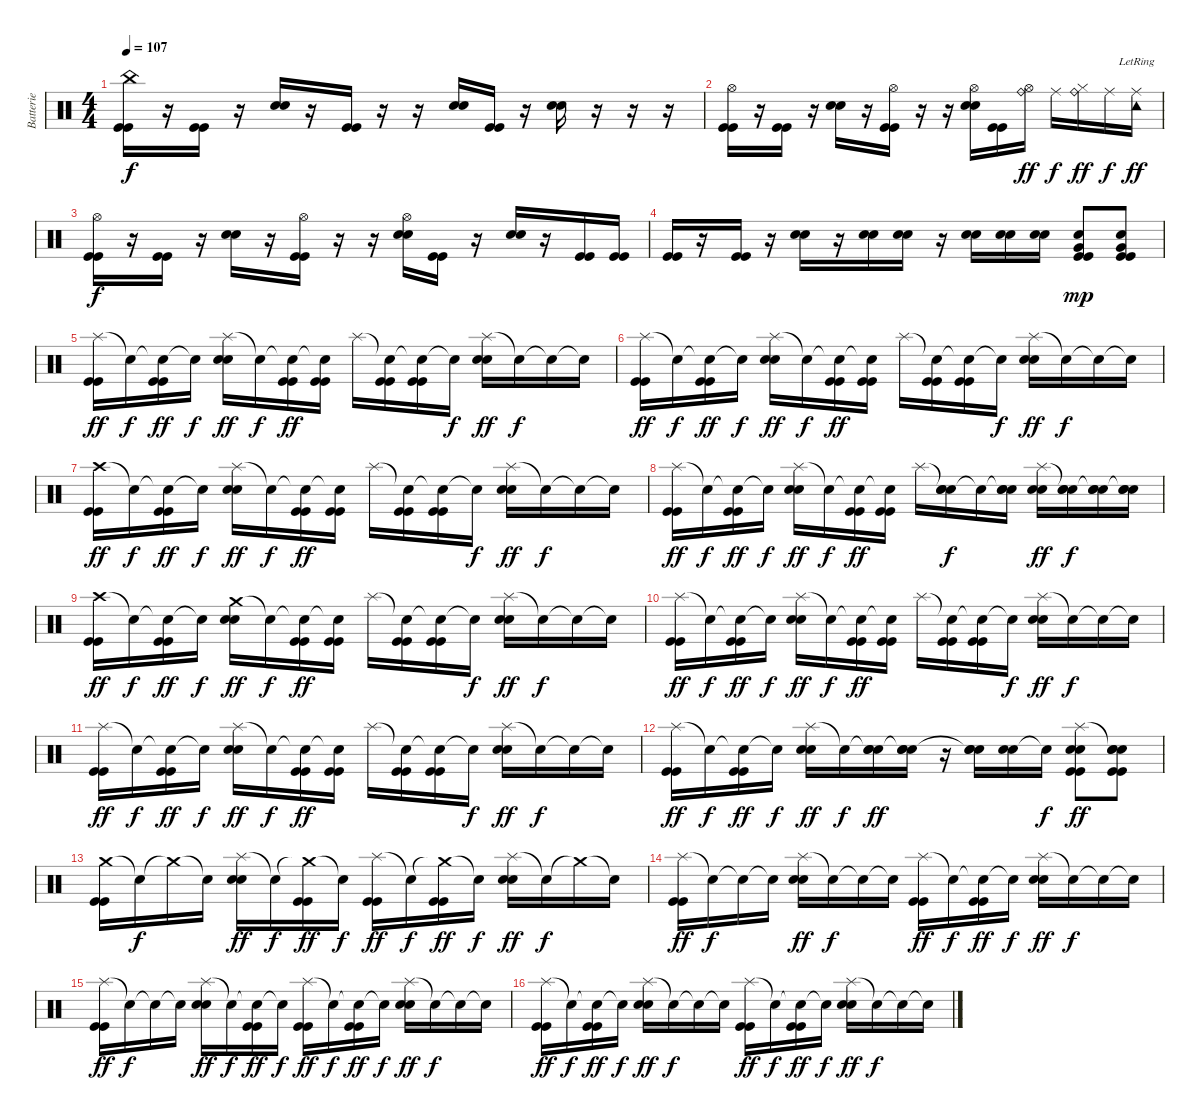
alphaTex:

\track ("Batterie" "Batterie") {instrument percussion}
\staff {score}
\articulation defaults
\ts (4 4)
\tempo 107
\clef neutral
\ks c
("China (hit)" "Kick (hit)" "Kick (hit)").16{dy f} r.16 ("Kick (hit)" "Kick (hit)").16 r.16 ("Snare (hit) 2" "Snare (hit) 2").16 r.16 ("Kick (hit)" "Kick (hit)").16 r.16 r.16 ("Snare (hit) 2" "Snare (hit) 2").16 ("Kick (hit)" "Kick (hit)").16 r.16 ("Snare (hit) 2" "Snare (hit) 2").16 r.16 r.16 r.16 |
("Hi-Hat (open)" "Kick (hit)" "Kick (hit)").16 r.16 ("Kick (hit)" "Kick (hit)").16 r.16 ("Snare (hit) 2" "Snare (hit) 2").16 r.16 ("Hi-Hat (open)" "Kick (hit)" "Kick (hit)").16 r.16 r.16 ("Hi-Hat (open)" "Snare (hit) 2" "Snare (hit) 2").16 ("Kick (hit)" "Kick (hit)").16 ("Hi-Hat (open)" "Ride (bell)").16{dy ff} "Ride (middle)".16{dy f} ("Ride (bell)" "Hi-Hat (closed)").16{dy ff} "Ride (middle)".16{dy f} ("Tambourine (hit)"{lr} "Ride (middle)").16{dy ff} |
("Hi-Hat (open)" "Kick (hit)" "Kick (hit)").16{dy f} r.16 ("Kick (hit)" "Kick (hit)").16 r.16 ("Snare (hit) 2" "Snare (hit) 2").16 r.16 ("Hi-Hat (open)" "Kick (hit)" "Kick (hit)").16 r.16 r.16 ("Hi-Hat (open)" "Snare (hit) 2" "Snare (hit) 2").16 ("Kick (hit)" "Kick (hit)").16 r.16 ("Snare (hit) 2" "Snare (hit) 2").16 r.16 ("Kick (hit)" "Kick (hit)").16 ("Kick (hit)" "Kick (hit)").16 |
("Kick (hit)" "Kick (hit)").16 r.16 ("Kick (hit)" "Kick (hit)").16 r.16 ("Snare (hit) 2" "Snare (hit) 2").16 r.16 ("Snare (hit) 2" "Snare (hit) 2").16 ("Snare (hit) 2" "Snare (hit) 2").16 r.16 ("Snare (hit) 2" "Snare (hit) 2").16 ("Snare (hit) 2" "Snare (hit) 2").16 ("Snare (hit) 2" "Snare (hit) 2").16 ("Very Low Tom (hit)" "Electric Snare (hit)" "Kick (hit)" "Kick (hit)").8{dy mp} ("Very Low Tom (hit)" "Electric Snare (hit)" "Kick (hit)" "Kick (hit)").8 |
("Splash (hit)" "Kick (hit)" "Kick (hit)").16{dy ff} "Snare (hit)"{t}.16{dy f} ("Snare (hit)"{t} "Kick (hit)" "Kick (hit)").16{dy ff} "Snare (hit)"{t}.16{dy f} ("Splash (hit)" "Snare (hit) 2" "Snare (hit) 2").16{dy ff} "Snare (hit)"{t}.16{dy f} ("Snare (hit)"{t} "Kick (hit)" "Kick (hit)").16{dy ff} ("Snare (hit)"{t} "Kick (hit)" "Kick (hit)").16 "Splash (hit)".16 ("Snare (hit)"{t} "Kick (hit)" "Kick (hit)").16 ("Snare (hit)"{t} "Kick (hit)" "Kick (hit)").16 "Snare (hit)"{t}.16{dy f} ("Splash (hit)" "Snare (hit) 2" "Snare (hit) 2").16{dy ff} "Snare (hit)"{t}.16{dy f} "Snare (hit)"{t}.16 "Snare (hit)"{t}.16 |
("Splash (hit)" "Kick (hit)" "Kick (hit)").16{dy ff} "Snare (hit)"{t}.16{dy f} ("Snare (hit)"{t} "Kick (hit)" "Kick (hit)").16{dy ff} "Snare (hit)"{t}.16{dy f} ("Splash (hit)" "Snare (hit) 2" "Snare (hit) 2").16{dy ff} "Snare (hit)"{t}.16{dy f} ("Snare (hit)"{t} "Kick (hit)" "Kick (hit)").16{dy ff} ("Snare (hit)"{t} "Kick (hit)" "Kick (hit)").16 "Splash (hit)".16 ("Snare (hit)"{t} "Kick (hit)" "Kick (hit)").16 ("Snare (hit)"{t} "Kick (hit)" "Kick (hit)").16 "Snare (hit)"{t}.16{dy f} ("Splash (hit)" "Snare (hit) 2" "Snare (hit) 2").16{dy ff} "Snare (hit)"{t}.16{dy f} "Snare (hit)"{t}.16 "Snare (hit)"{t}.16 |
("Crash high (hit)" "Kick (hit)" "Kick (hit)").16{dy ff} "Snare (hit)"{t}.16{dy f} ("Snare (hit)"{t} "Kick (hit)" "Kick (hit)").16{dy ff} "Snare (hit)"{t}.16{dy f} ("Splash (hit)" "Snare (hit) 2" "Snare (hit) 2").16{dy ff} "Snare (hit)"{t}.16{dy f} ("Snare (hit)"{t} "Kick (hit)" "Kick (hit)").16{dy ff} ("Snare (hit)"{t} "Kick (hit)" "Kick (hit)").16 "Splash (hit)".16 ("Snare (hit)"{t} "Kick (hit)" "Kick (hit)").16 ("Snare (hit)"{t} "Kick (hit)" "Kick (hit)").16 "Snare (hit)"{t}.16{dy f} ("Splash (hit)" "Snare (hit) 2" "Snare (hit) 2").16{dy ff} "Snare (hit)"{t}.16{dy f} "Snare (hit)"{t}.16 "Snare (hit)"{t}.16 |
("Splash (hit)" "Kick (hit)" "Kick (hit)").16{dy ff} "Snare (hit)"{t}.16{dy f} ("Snare (hit)"{t} "Kick (hit)" "Kick (hit)").16{dy ff} "Snare (hit)"{t}.16{dy f} ("Splash (hit)" "Snare (hit) 2" "Snare (hit) 2").16{dy ff} "Snare (hit)"{t}.16{dy f} ("Snare (hit)"{t} "Kick (hit)" "Kick (hit)").16{dy ff} ("Snare (hit)"{t} "Kick (hit)" "Kick (hit)").16 "Splash (hit)".16 ("Snare (hit)"{t} "Snare (hit) 2" "Snare (hit) 2").16{dy f} "Snare (hit)"{t}.16 ("Snare (hit)"{t} "Snare (hit) 2" "Snare (hit) 2").16 ("Splash (hit)" "Snare (hit) 2" "Snare (hit) 2").16{dy ff} ("Snare (hit)"{t} "Snare (hit) 2" "Snare (hit) 2").16{dy f} ("Snare (hit)"{t} "Snare (hit) 2" "Snare (hit) 2").16 ("Snare (hit)"{t} "Snare (hit) 2" "Snare (hit) 2").16 |
("Crash high (hit)" "Kick (hit)" "Kick (hit)").16{dy ff} "Snare (hit)"{t}.16{dy f} ("Snare (hit)"{t} "Kick (hit)" "Kick (hit)").16{dy ff} "Snare (hit)"{t}.16{dy f} ("Crash medium (hit)" "Snare (hit) 2" "Snare (hit) 2").16{dy ff} "Snare (hit)"{t}.16{dy f} ("Snare (hit)"{t} "Kick (hit)" "Kick (hit)").16{dy ff} ("Snare (hit)"{t} "Kick (hit)" "Kick (hit)").16 "Splash (hit)".16 ("Snare (hit)"{t} "Kick (hit)" "Kick (hit)").16 ("Snare (hit)"{t} "Kick (hit)" "Kick (hit)").16 "Snare (hit)"{t}.16{dy f} ("Splash (hit)" "Snare (hit) 2" "Snare (hit) 2").16{dy ff} "Snare (hit)"{t}.16{dy f} "Snare (hit)"{t}.16 "Snare (hit)"{t}.16 |
("Splash (hit)" "Kick (hit)" "Kick (hit)").16{dy ff} "Snare (hit)"{t}.16{dy f} ("Snare (hit)"{t} "Kick (hit)" "Kick (hit)").16{dy ff} "Snare (hit)"{t}.16{dy f} ("Splash (hit)" "Snare (hit) 2" "Snare (hit) 2").16{dy ff} "Snare (hit)"{t}.16{dy f} ("Snare (hit)"{t} "Kick (hit)" "Kick (hit)").16{dy ff} ("Snare (hit)"{t} "Kick (hit)" "Kick (hit)").16 "Splash (hit)".16 ("Snare (hit)"{t} "Kick (hit)" "Kick (hit)").16 ("Snare (hit)"{t} "Kick (hit)" "Kick (hit)").16 "Snare (hit)"{t}.16{dy f} ("Splash (hit)" "Snare (hit) 2" "Snare (hit) 2").16{dy ff} "Snare (hit)"{t}.16{dy f} "Snare (hit)"{t}.16 "Snare (hit)"{t}.16 |
("Splash (hit)" "Kick (hit)" "Kick (hit)").16{dy ff} "Snare (hit)"{t}.16{dy f} ("Snare (hit)"{t} "Kick (hit)" "Kick (hit)").16{dy ff} "Snare (hit)"{t}.16{dy f} ("Splash (hit)" "Snare (hit) 2" "Snare (hit) 2").16{dy ff} "Snare (hit)"{t}.16{dy f} ("Snare (hit)"{t} "Kick (hit)" "Kick (hit)").16{dy ff} ("Snare (hit)"{t} "Kick (hit)" "Kick (hit)").16 "Splash (hit)".16 ("Snare (hit)"{t} "Kick (hit)" "Kick (hit)").16 ("Snare (hit)"{t} "Kick (hit)" "Kick (hit)").16 "Snare (hit)"{t}.16{dy f} ("Splash (hit)" "Snare (hit) 2" "Snare (hit) 2").16{dy ff} "Snare (hit)"{t}.16{dy f} "Snare (hit)"{t}.16 "Snare (hit)"{t}.16 |
("Splash (hit)" "Kick (hit)" "Kick (hit)").16{dy ff} "Snare (hit)"{t}.16{dy f} ("Snare (hit)"{t} "Kick (hit)" "Kick (hit)").16{dy ff} "Snare (hit)"{t}.16{dy f} ("Splash (hit)" "Snare (hit) 2" "Snare (hit) 2").16{dy ff} "Snare (hit)"{t}.16{dy f} ("Snare (hit)"{t} "Snare (hit) 2" "Snare (hit) 2").16{dy ff} ("Snare (hit)"{t} "Snare (hit) 2" "Snare (hit) 2").16 r.16 ("Snare (hit)"{t} "Snare (hit) 2" "Snare (hit) 2").16 ("Snare (hit) 2" "Snare (hit) 2").16 "Snare (hit)"{t}.16{dy f} ("Splash (hit)" "Snare (hit) 2" "Snare (hit) 2" "Kick (hit)" "Kick (hit)").8{dy ff} ("Snare (hit)"{t} "Snare (hit) 2" "Snare (hit) 2" "Kick (hit)" "Kick (hit)").8 |
("Crash medium (hit)" "Kick (hit)" "Kick (hit)").16 "Snare (hit)"{t}.16{dy f} "Crash medium (hit)"{t}.16 "Snare (hit)"{t}.16 ("Splash (hit)" "Snare (hit) 2" "Snare (hit) 2").16{dy ff} "Snare (hit)"{t}.16{dy f} ("Crash medium (hit)"{t} "Kick (hit)" "Kick (hit)").16{dy ff} "Snare (hit)"{t}.16{dy f} ("Splash (hit)" "Kick (hit)" "Kick (hit)").16{dy ff} "Snare (hit)"{t}.16{dy f} ("Crash medium (hit)"{t} "Kick (hit)" "Kick (hit)").16{dy ff} "Snare (hit)"{t}.16{dy f} ("Splash (hit)" "Snare (hit) 2" "Snare (hit) 2").16{dy ff} "Snare (hit)"{t}.16{dy f} "Crash medium (hit)"{t}.16 "Snare (hit)"{t}.16 |
("Splash (hit)" "Kick (hit)" "Kick (hit)").16{dy ff} "Snare (hit)"{t}.16{dy f} "Snare (hit)"{t}.16 "Snare (hit)"{t}.16 ("Splash (hit)" "Snare (hit) 2" "Snare (hit) 2").16{dy ff} "Snare (hit)"{t}.16{dy f} "Snare (hit)"{t}.16 "Snare (hit)"{t}.16 ("Splash (hit)" "Kick (hit)" "Kick (hit)").16{dy ff} "Snare (hit)"{t}.16{dy f} ("Snare (hit)"{t} "Kick (hit)" "Kick (hit)").16{dy ff} "Snare (hit)"{t}.16{dy f} ("Splash (hit)" "Snare (hit) 2" "Snare (hit) 2").16{dy ff} "Snare (hit)"{t}.16{dy f} "Snare (hit)"{t}.16 "Snare (hit)"{t}.16 |
("Splash (hit)" "Kick (hit)" "Kick (hit)").16{dy ff} "Snare (hit)"{t}.16{dy f} "Snare (hit)"{t}.16 "Snare (hit)"{t}.16 ("Splash (hit)" "Snare (hit) 2" "Snare (hit) 2").16{dy ff} "Snare (hit)"{t}.16{dy f} ("Snare (hit)"{t} "Kick (hit)" "Kick (hit)").16{dy ff} "Snare (hit)"{t}.16{dy f} ("Splash (hit)" "Kick (hit)" "Kick (hit)").16{dy ff} "Snare (hit)"{t}.16{dy f} ("Snare (hit)"{t} "Kick (hit)" "Kick (hit)").16{dy ff} "Snare (hit)"{t}.16{dy f} ("Splash (hit)" "Snare (hit) 2" "Snare (hit) 2").16{dy ff} "Snare (hit)"{t}.16{dy f} "Snare (hit)"{t}.16 "Snare (hit)"{t}.16 |
("Splash (hit)" "Kick (hit)" "Kick (hit)").16{dy ff} "Snare (hit)"{t}.16{dy f} ("Snare (hit)"{t} "Kick (hit)" "Kick (hit)").16{dy ff} "Snare (hit)"{t}.16{dy f} ("Splash (hit)" "Snare (hit) 2" "Snare (hit) 2").16{dy ff} "Snare (hit)"{t}.16{dy f} "Snare (hit)"{t}.16 "Snare (hit)"{t}.16 ("Splash (hit)" "Kick (hit)" "Kick (hit)").16{dy ff} "Snare (hit)"{t}.16{dy f} ("Snare (hit)"{t} "Kick (hit)" "Kick (hit)").16{dy ff} "Snare (hit)"{t}.16{dy f} ("Splash (hit)" "Snare (hit) 2" "Snare (hit) 2").16{dy ff} "Snare (hit)"{t}.16{dy f} "Snare (hit)"{t}.16 "Snare (hit)"{t}.16
